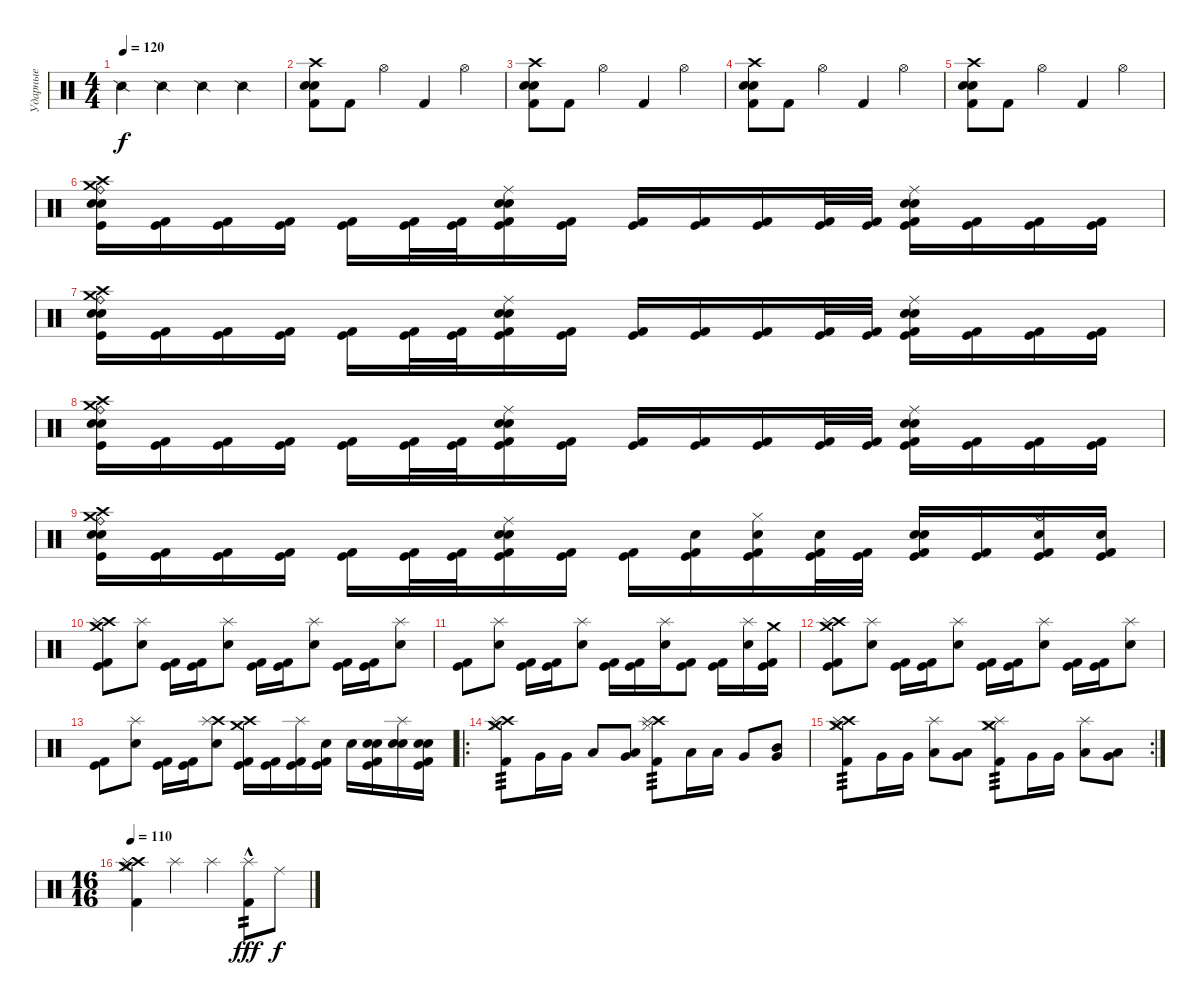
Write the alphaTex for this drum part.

\track ("Ударные" "Ударные") {instrument percussion}
\staff {score}
\articulation defaults
\ts (4 4)
\tempo 120
\clef neutral
\ks c "Snare (side stick) 2".4{dy f} "Snare (side stick) 2".4 "Snare (side stick) 2".4 "Snare (side stick) 2".4
|
("Crash high (hit)" "Electric Snare (hit)" "Snare (hit) 2" "Kick (hit) 2").8 "Kick (hit) 2".8 "Hi-Hat (open)".4 "Kick (hit) 2".4 "Hi-Hat (open)".4 |
("Crash high (hit)" "Electric Snare (hit)" "Snare (hit) 2" "Kick (hit) 2").8 "Kick (hit) 2".8 "Hi-Hat (open)".4 "Kick (hit) 2".4 "Hi-Hat (open)".4 |
("Crash high (hit)" "Electric Snare (hit)" "Snare (hit) 2" "Kick (hit) 2").8 "Kick (hit) 2".8 "Hi-Hat (open)".4 "Kick (hit) 2".4 "Hi-Hat (open)".4 |
("Crash high (hit)" "Electric Snare (hit)" "Snare (hit) 2" "Kick (hit) 2").8 "Kick (hit) 2".8 "Hi-Hat (open)".4 "Kick (hit) 2".4 "Hi-Hat (open)".4 |
("Electric Snare (hit)" "Snare (hit) 2" "Ride (bell)" "Crash high (hit)" "Crash medium (hit)" "Kick (hit)").16 ("Kick (hit) 2" "Kick (hit)").16 ("Kick (hit) 2" "Kick (hit)").16 ("Kick (hit) 2" "Kick (hit)").16 ("Kick (hit) 2" "Kick (hit)").16 ("Kick (hit) 2" "Kick (hit)").32 ("Kick (hit) 2" "Kick (hit)").32 ("Electric Snare (hit)" "Snare (hit) 2" "Ride (middle)" "Kick (hit) 2" "Kick (hit)").16 ("Kick (hit) 2" "Kick (hit)").16 ("Kick (hit) 2" "Kick (hit)").16 ("Kick (hit) 2" "Kick (hit)").16 ("Kick (hit) 2" "Kick (hit)").16 ("Kick (hit) 2" "Kick (hit)").32 ("Kick (hit) 2" "Kick (hit)").32 ("Electric Snare (hit)" "Snare (hit) 2" "Ride (middle)" "Kick (hit) 2" "Kick (hit)").16 ("Kick (hit) 2" "Kick (hit)").16 ("Kick (hit) 2" "Kick (hit)").16 ("Kick (hit) 2" "Kick (hit)").16 |
("Electric Snare (hit)" "Snare (hit) 2" "Ride (bell)" "Crash high (hit)" "Crash medium (hit)" "Kick (hit)").16 ("Kick (hit) 2" "Kick (hit)").16 ("Kick (hit) 2" "Kick (hit)").16 ("Kick (hit) 2" "Kick (hit)").16 ("Kick (hit) 2" "Kick (hit)").16 ("Kick (hit) 2" "Kick (hit)").32 ("Kick (hit) 2" "Kick (hit)").32 ("Electric Snare (hit)" "Snare (hit) 2" "Ride (middle)" "Kick (hit) 2" "Kick (hit)").16 ("Kick (hit) 2" "Kick (hit)").16 ("Kick (hit) 2" "Kick (hit)").16 ("Kick (hit) 2" "Kick (hit)").16 ("Kick (hit) 2" "Kick (hit)").16 ("Kick (hit) 2" "Kick (hit)").32 ("Kick (hit) 2" "Kick (hit)").32 ("Electric Snare (hit)" "Snare (hit) 2" "Ride (middle)" "Kick (hit) 2" "Kick (hit)").16 ("Kick (hit) 2" "Kick (hit)").16 ("Kick (hit) 2" "Kick (hit)").16 ("Kick (hit) 2" "Kick (hit)").16 |
("Electric Snare (hit)" "Snare (hit) 2" "Ride (bell)" "Crash high (hit)" "Crash medium (hit)" "Kick (hit)").16 ("Kick (hit) 2" "Kick (hit)").16 ("Kick (hit) 2" "Kick (hit)").16 ("Kick (hit) 2" "Kick (hit)").16 ("Kick (hit) 2" "Kick (hit)").16 ("Kick (hit) 2" "Kick (hit)").32 ("Kick (hit) 2" "Kick (hit)").32 ("Electric Snare (hit)" "Snare (hit) 2" "Ride (middle)" "Kick (hit) 2" "Kick (hit)").16 ("Kick (hit) 2" "Kick (hit)").16 ("Kick (hit) 2" "Kick (hit)").16 ("Kick (hit) 2" "Kick (hit)").16 ("Kick (hit) 2" "Kick (hit)").16 ("Kick (hit) 2" "Kick (hit)").32 ("Kick (hit) 2" "Kick (hit)").32 ("Electric Snare (hit)" "Snare (hit) 2" "Ride (middle)" "Kick (hit) 2" "Kick (hit)").16 ("Kick (hit) 2" "Kick (hit)").16 ("Kick (hit) 2" "Kick (hit)").16 ("Kick (hit) 2" "Kick (hit)").16 |
("Electric Snare (hit)" "Snare (hit) 2" "Ride (bell)" "Crash high (hit)" "Crash medium (hit)" "Kick (hit)").16 ("Kick (hit) 2" "Kick (hit)").16 ("Kick (hit) 2" "Kick (hit)").16 ("Kick (hit) 2" "Kick (hit)").16 ("Kick (hit) 2" "Kick (hit)").16 ("Kick (hit) 2" "Kick (hit)").32 ("Kick (hit) 2" "Kick (hit)").32 ("Electric Snare (hit)" "Snare (hit) 2" "Ride (middle)" "Kick (hit) 2" "Kick (hit)").16 ("Kick (hit) 2" "Kick (hit)").16 ("Kick (hit) 2" "Kick (hit)").16 ("Electric Snare (hit)" "Kick (hit) 2" "Kick (hit)").16 ("Hi-Hat (closed)" "Electric Snare (hit)" "Kick (hit) 2" "Kick (hit)").16 ("Electric Snare (hit)" "Kick (hit) 2" "Kick (hit)").32 ("Kick (hit) 2" "Kick (hit)").32 ("Electric Snare (hit)" "Snare (hit) 2" "Kick (hit) 2" "Kick (hit)").16 ("Kick (hit) 2" "Kick (hit)").16 ("Hi-Hat (open)" "Electric Snare (hit)" "Kick (hit) 2" "Kick (hit)").16 ("Electric Snare (hit)" "Kick (hit) 2" "Kick (hit)").16 |
("Crash high (hit)" "Splash (hit)" "Crash medium (hit)" "Kick (hit)" "Kick (hit) 2").8 ("Splash (hit)" "Snare (hit) 2").8 ("Kick (hit)" "Kick (hit) 2").16 ("Kick (hit)" "Kick (hit) 2").16 ("Splash (hit)" "Snare (hit) 2").8 ("Kick (hit)" "Kick (hit) 2").16 ("Kick (hit)" "Kick (hit) 2").16 ("Splash (hit)" "Snare (hit) 2").8 ("Kick (hit)" "Kick (hit) 2").16 ("Kick (hit)" "Kick (hit) 2").16 ("Splash (hit)" "Snare (hit) 2").8 |
("Kick (hit)" "Kick (hit) 2").8 ("Splash (hit)" "Snare (hit) 2").8 ("Kick (hit)" "Kick (hit) 2").16 ("Kick (hit)" "Kick (hit) 2").16 ("Splash (hit)" "Snare (hit) 2").8 ("Kick (hit)" "Kick (hit) 2").16 ("Kick (hit)" "Kick (hit) 2").16 ("Splash (hit)" "Snare (hit) 2").16 ("Kick (hit)" "Kick (hit) 2").8 ("Kick (hit)" "Kick (hit) 2").16 ("Splash (hit)" "Snare (hit) 2").16 ("Crash medium (hit)" "Kick (hit)" "Kick (hit) 2").16 |
("Crash high (hit)" "Splash (hit)" "Crash medium (hit)" "Kick (hit)" "Kick (hit) 2").8 ("Splash (hit)" "Snare (hit) 2").8 ("Kick (hit)" "Kick (hit) 2").16 ("Kick (hit)" "Kick (hit) 2").16 ("Splash (hit)" "Snare (hit) 2").8 ("Kick (hit)" "Kick (hit) 2").16 ("Kick (hit)" "Kick (hit) 2").16 ("Splash (hit)" "Snare (hit) 2").8 ("Kick (hit)" "Kick (hit) 2").16 ("Kick (hit)" "Kick (hit) 2").16 ("Splash (hit)" "Snare (hit) 2").8 |
("Kick (hit)" "Kick (hit) 2").8 ("Splash (hit)" "Snare (hit) 2").8 ("Kick (hit)" "Kick (hit) 2").16 ("Kick (hit)" "Kick (hit) 2").16 ("Crash high (hit)" "Splash (hit)" "Snare (hit) 2").8 ("Crash medium (hit)" "Crash high (hit)" "Kick (hit)" "Kick (hit) 2").16 ("Kick (hit)" "Kick (hit) 2").16 ("Splash (hit)" "Kick (hit) 2" "Kick (hit)").16 ("Electric Snare (hit)" "Kick (hit)" "Kick (hit) 2").16 "Electric Snare (hit)".16 ("Electric Snare (hit)" "Snare (hit) 2" "Kick (hit)" "Kick (hit) 2").16 ("Splash (hit)" "Electric Snare (hit)" "Snare (hit) 2").16 ("Electric Snare (hit)" "Snare (hit) 2" "Kick (hit)" "Kick (hit) 2").16 |
\ro
("Crash high (hit)" "Splash (hit)" "Crash medium (hit)" "Hi-Hat (closed)" "Kick (hit) 2").8{tp 3} "Very Low Tom (hit)".16 "Very Low Tom (hit)".16 "Low Floor Tom (hit)".8 ("Low Tom (hit)" "Very Low Tom (hit)").8 ("Crash high (hit)" "Splash (hit)" "Hi-Hat (closed)" "Kick (hit) 2").8{tp 3} "Low Tom (hit)".16 "Low Tom (hit)".16 "Very Low Tom (hit)".8 ("Mid Tom (hit)" "Very Low Tom (hit)").8 |
\rc 2
("Crash high (hit)" "Splash (hit)" "Crash medium (hit)" "Hi-Hat (closed)" "Kick (hit) 2").8{tp 3} "Very Low Tom (hit)".16 "Very Low Tom (hit)".16 ("Splash (hit)" "Low Floor Tom (hit)").8 ("Low Tom (hit)" "Very Low Tom (hit)").8 ("Splash (hit)" "Crash medium (hit)" "Hi-Hat (closed)" "Kick (hit) 2").8{tp 3} "Very Low Tom (hit)".16 "Very Low Tom (hit)".16 ("Splash (hit)" "Low Floor Tom (hit)").8 ("Low Tom (hit)" "Very Low Tom (hit)").8 |
\ts (16 16)
\tempo 110
("Crash high (hit)" "Splash (hit)" "Crash medium (hit)" "Hi-Hat (closed)" "Kick (hit) 2").4 "Splash (hit)".4 "Splash (hit)".4 ("Splash (hit)" "Kick (hit) 2"{hac}).8{tp 2 dy fff} "Ride (middle)".8{dy f}
